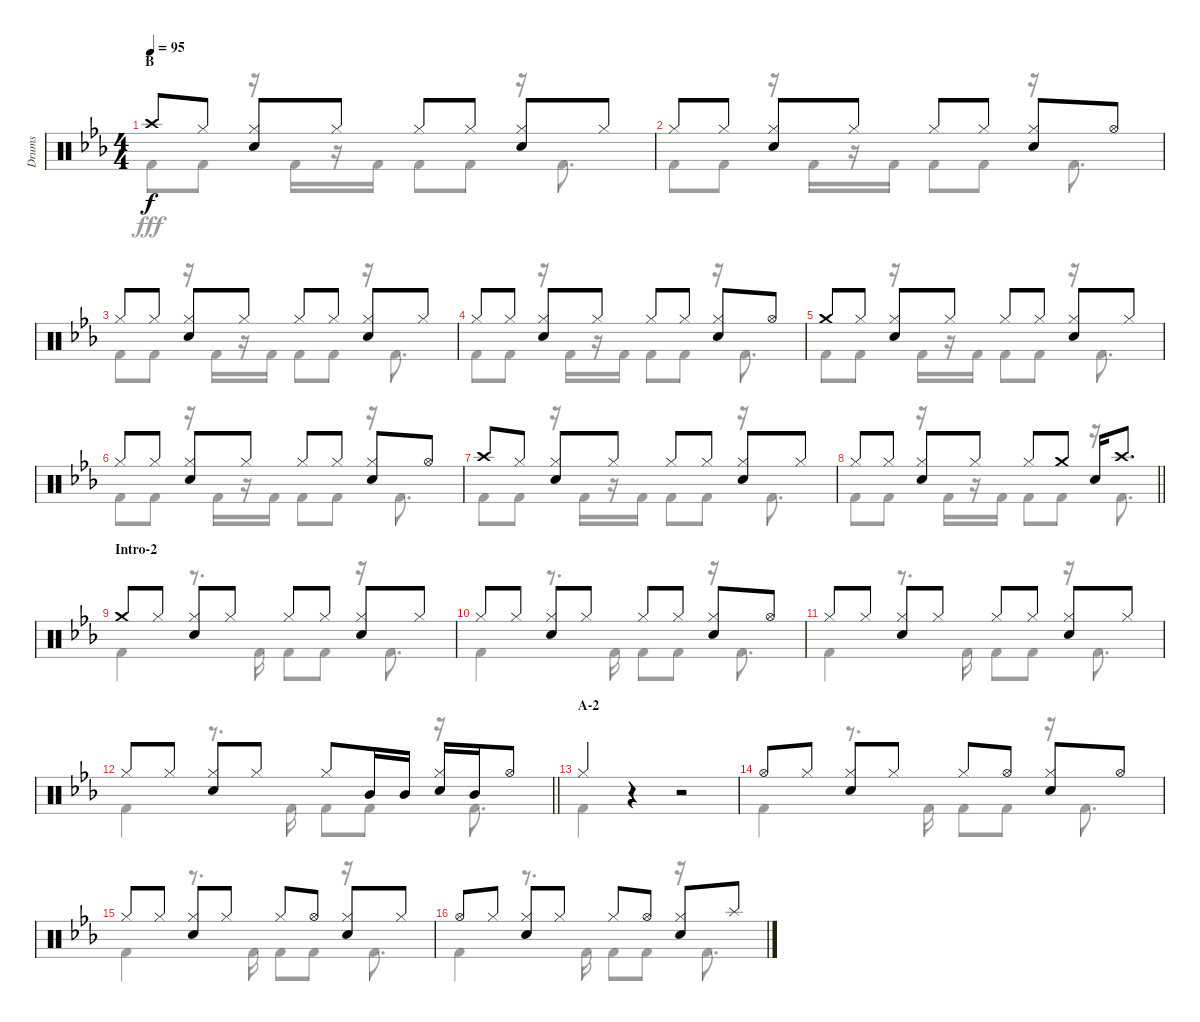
\track ("Drums" "Drums") {instrument percussion}
\staff {score}
\articulation defaults
\voice
\ts (4 4)
\section ("" "B")
\tempo 95
\clef neutral
\ks cminor "Crash high (hit)".8{dy f} "Hi-Hat (closed)".8
("Hi-Hat (closed)" "Snare (hit) 2").8 "Hi-Hat (closed)".8 "Hi-Hat (closed)".8 "Hi-Hat (closed)".8 ("Hi-Hat (closed)" "Snare (hit) 2").8 "Hi-Hat (closed)".8 |
"Hi-Hat (closed)".8 "Hi-Hat (closed)".8 ("Hi-Hat (closed)" "Snare (hit) 2").8 "Hi-Hat (closed)".8 "Hi-Hat (closed)".8 "Hi-Hat (closed)".8 ("Hi-Hat (closed)" "Snare (hit) 2").8 "Hi-Hat (open)".8 |
"Hi-Hat (closed)".8 "Hi-Hat (closed)".8 ("Hi-Hat (closed)" "Snare (hit) 2").8 "Hi-Hat (closed)".8 "Hi-Hat (closed)".8 "Hi-Hat (closed)".8 ("Hi-Hat (closed)" "Snare (hit) 2").8 "Hi-Hat (closed)".8 |
"Hi-Hat (closed)".8 "Hi-Hat (closed)".8 ("Hi-Hat (closed)" "Snare (hit) 2").8 "Hi-Hat (closed)".8 "Hi-Hat (closed)".8 "Hi-Hat (closed)".8 ("Hi-Hat (closed)" "Snare (hit) 2").8 "Hi-Hat (open)".8 |
"Crash medium (hit)".8 "Hi-Hat (closed)".8 ("Hi-Hat (closed)" "Snare (hit) 2").8 "Hi-Hat (closed)".8 "Hi-Hat (closed)".8 "Hi-Hat (closed)".8 ("Hi-Hat (closed)" "Snare (hit) 2").8 "Hi-Hat (closed)".8 |
"Hi-Hat (closed)".8 "Hi-Hat (closed)".8 ("Hi-Hat (closed)" "Snare (hit) 2").8 "Hi-Hat (closed)".8 "Hi-Hat (closed)".8 "Hi-Hat (closed)".8 ("Hi-Hat (closed)" "Snare (hit) 2").8 "Hi-Hat (open)".8 |
"Crash high (hit)".8 "Hi-Hat (closed)".8 ("Hi-Hat (closed)" "Snare (hit) 2").8 "Hi-Hat (closed)".8 "Hi-Hat (closed)".8 "Hi-Hat (closed)".8 ("Hi-Hat (closed)" "Snare (hit) 2").8 "Hi-Hat (closed)".8 |
\barLineRight lightlight "Hi-Hat (closed)".8 "Hi-Hat (closed)".8
("Hi-Hat (closed)" "Snare (hit) 2").8 "Hi-Hat (closed)".8 "Hi-Hat (closed)".8 "Crash medium (hit)".8 "Snare (hit) 2".16 "Crash high (hit)".8{d} |
\section ("" "Intro-2")
"Crash medium (hit)".8 "Hi-Hat (closed)".8 ("Hi-Hat (closed)" "Snare (hit) 2").8 "Hi-Hat (closed)".8 "Hi-Hat (closed)".8 "Hi-Hat (closed)".8 ("Hi-Hat (closed)" "Snare (hit) 2").8 "Hi-Hat (closed)".8 |
"Hi-Hat (closed)".8 "Hi-Hat (closed)".8 ("Hi-Hat (closed)" "Snare (hit) 2").8 "Hi-Hat (closed)".8 "Hi-Hat (closed)".8 "Hi-Hat (closed)".8 ("Hi-Hat (closed)" "Snare (hit) 2").8 "Hi-Hat (open)".8 |
"Hi-Hat (closed)".8 "Hi-Hat (closed)".8 ("Hi-Hat (closed)" "Snare (hit) 2").8 "Hi-Hat (closed)".8 "Hi-Hat (closed)".8 "Hi-Hat (closed)".8 ("Hi-Hat (closed)" "Snare (hit) 2").8 "Hi-Hat (closed)".8 |
\barLineRight lightlight "Hi-Hat (closed)".8 "Hi-Hat (closed)".8
("Hi-Hat (closed)" "Snare (hit) 2").8 "Hi-Hat (closed)".8 "Hi-Hat (closed)".8 "Mid Tom (hit)".16 "Mid Tom (hit)".16 ("Hi-Hat (closed)" "Snare (hit) 2").16 "Mid Tom (hit)".16 "Hi-Hat (open)".8 |
\section ("" "A-2")
"Hi-Hat (closed)".4 r.4 r.2 |
"Hi-Hat (open)".8 "Hi-Hat (closed)".8 ("Hi-Hat (closed)" "Snare (hit) 2").8 "Hi-Hat (closed)".8 "Hi-Hat (closed)".8 "Hi-Hat (open)".8 ("Hi-Hat (closed)" "Snare (hit) 2").8 "Hi-Hat (open)".8 |
"Hi-Hat (closed)".8 "Hi-Hat (closed)".8 ("Hi-Hat (closed)" "Snare (hit) 2").8 "Hi-Hat (closed)".8 "Hi-Hat (closed)".8 "Hi-Hat (open)".8 ("Hi-Hat (closed)" "Snare (hit) 2").8 "Hi-Hat (closed)".8 |
"Hi-Hat (open)".8 "Hi-Hat (closed)".8 ("Hi-Hat (closed)" "Snare (hit) 2").8 "Hi-Hat (closed)".8 "Hi-Hat (closed)".8 "Hi-Hat (open)".8 ("Hi-Hat (closed)" "Snare (hit) 2").8 "Splash (hit)".8
\voice
\clef neutral
\ottava regular
\simile none
\ks cminor "Kick (hit) 2".8{dy fff} "Kick (hit) 2".8
r.16 "Kick (hit) 2".16 r.16 "Kick (hit) 2".16 "Kick (hit) 2".8 "Kick (hit) 2".8 r.16 "Kick (hit) 2".8{d} |
"Kick (hit) 2".8 "Kick (hit) 2".8 r.16 "Kick (hit) 2".16 r.16 "Kick (hit) 2".16 "Kick (hit) 2".8 "Kick (hit) 2".8 r.16 "Kick (hit) 2".8{d} |
"Kick (hit) 2".8 "Kick (hit) 2".8 r.16 "Kick (hit) 2".16 r.16 "Kick (hit) 2".16 "Kick (hit) 2".8 "Kick (hit) 2".8 r.16 "Kick (hit) 2".8{d} |
"Kick (hit) 2".8 "Kick (hit) 2".8 r.16 "Kick (hit) 2".16 r.16 "Kick (hit) 2".16 "Kick (hit) 2".8 "Kick (hit) 2".8 r.16 "Kick (hit) 2".8{d} |
"Kick (hit) 2".8 "Kick (hit) 2".8 r.16 "Kick (hit) 2".16 r.16 "Kick (hit) 2".16 "Kick (hit) 2".8 "Kick (hit) 2".8 r.16 "Kick (hit) 2".8{d} |
"Kick (hit) 2".8 "Kick (hit) 2".8 r.16 "Kick (hit) 2".16 r.16 "Kick (hit) 2".16 "Kick (hit) 2".8 "Kick (hit) 2".8 r.16 "Kick (hit) 2".8{d} |
"Kick (hit) 2".8 "Kick (hit) 2".8 r.16 "Kick (hit) 2".16 r.16 "Kick (hit) 2".16 "Kick (hit) 2".8 "Kick (hit) 2".8 r.16 "Kick (hit) 2".8{d} |
\barLineRight lightlight "Kick (hit) 2".8 "Kick (hit) 2".8
r.16 "Kick (hit) 2".16 r.16 "Kick (hit) 2".16 "Kick (hit) 2".8 "Kick (hit) 2".8 r.16 "Kick (hit) 2".8{d} |
"Kick (hit) 2".4 r.8{d} "Kick (hit) 2".16 "Kick (hit) 2".8 "Kick (hit) 2".8 r.16 "Kick (hit) 2".8{d} |
"Kick (hit) 2".4 r.8{d} "Kick (hit) 2".16 "Kick (hit) 2".8 "Kick (hit) 2".8 r.16 "Kick (hit) 2".8{d} |
"Kick (hit) 2".4 r.8{d} "Kick (hit) 2".16 "Kick (hit) 2".8 "Kick (hit) 2".8 r.16 "Kick (hit) 2".8{d} |
\barLineRight lightlight "Kick (hit) 2".4
r.8{d} "Kick (hit) 2".16 "Kick (hit) 2".8 "Kick (hit) 2".8 r.16 "Kick (hit) 2".8{d} |
"Kick (hit) 2".4 r.4 r.2 |
"Kick (hit) 2".4 r.8{d} "Kick (hit) 2".16 "Kick (hit) 2".8 "Kick (hit) 2".8 r.16 "Kick (hit) 2".8{d} |
"Kick (hit) 2".4 r.8{d} "Kick (hit) 2".16 "Kick (hit) 2".8 "Kick (hit) 2".8 r.16 "Kick (hit) 2".8{d} |
"Kick (hit) 2".4 r.8{d} "Kick (hit) 2".16 "Kick (hit) 2".8 "Kick (hit) 2".8 r.16 "Kick (hit) 2".8{d}
